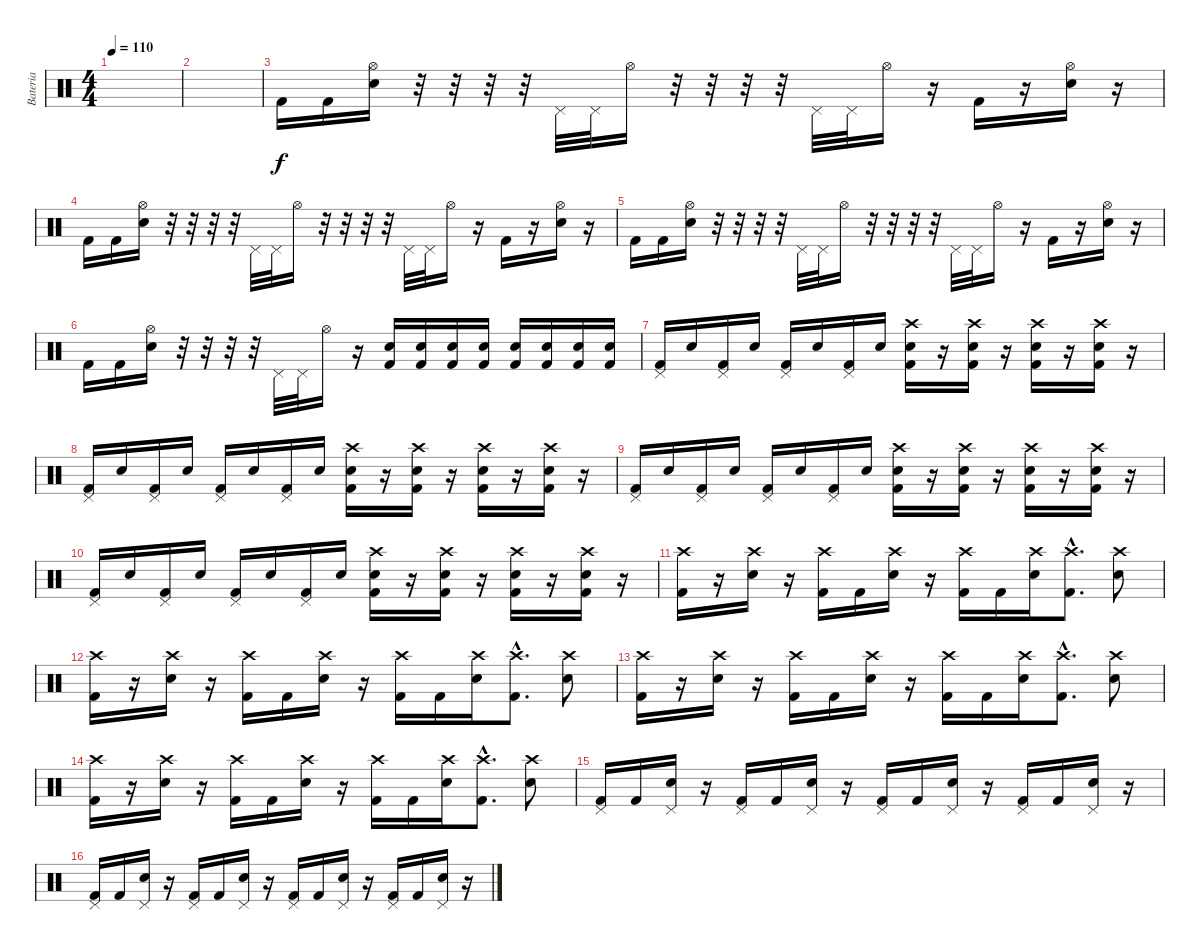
\track ("Bateria" "Bateria") {instrument percussion}
\staff {score}
\articulation defaults
\ts (4 4)
\tempo 110
\clef neutral
\ks c
|
|
"Kick (hit) 2".16 "Kick (hit) 2".16 ("Hi-Hat (open)" "Electric Snare (hit)").16 r.32 r.32 r.32 r.32 "Pedal Hi-Hat (hit)".32 "Pedal Hi-Hat (hit)".32 "Hi-Hat (open)".16 r.32 r.32 r.32 r.32 "Pedal Hi-Hat (hit)".32 "Pedal Hi-Hat (hit)".32 "Hi-Hat (open)".16 r.16 "Kick (hit) 2".16 r.16 ("Hi-Hat (open)" "Electric Snare (hit)").16 r.16 |
"Kick (hit) 2".16 "Kick (hit) 2".16 ("Hi-Hat (open)" "Electric Snare (hit)").16 r.32 r.32 r.32 r.32 "Pedal Hi-Hat (hit)".32 "Pedal Hi-Hat (hit)".32 "Hi-Hat (open)".16 r.32 r.32 r.32 r.32 "Pedal Hi-Hat (hit)".32 "Pedal Hi-Hat (hit)".32 "Hi-Hat (open)".16 r.16 "Kick (hit) 2".16 r.16 ("Hi-Hat (open)" "Electric Snare (hit)").16 r.16 |
"Kick (hit) 2".16 "Kick (hit) 2".16 ("Hi-Hat (open)" "Electric Snare (hit)").16 r.32 r.32 r.32 r.32 "Pedal Hi-Hat (hit)".32 "Pedal Hi-Hat (hit)".32 "Hi-Hat (open)".16 r.32 r.32 r.32 r.32 "Pedal Hi-Hat (hit)".32 "Pedal Hi-Hat (hit)".32 "Hi-Hat (open)".16 r.16 "Kick (hit) 2".16 r.16 ("Hi-Hat (open)" "Electric Snare (hit)").16 r.16 |
"Kick (hit) 2".16 "Kick (hit) 2".16 ("Hi-Hat (open)" "Electric Snare (hit)").16 r.32 r.32 r.32 r.32 "Pedal Hi-Hat (hit)".32 "Pedal Hi-Hat (hit)".32 "Hi-Hat (open)".16 r.16 ("Electric Snare (hit)" "Kick (hit) 2").16 ("Electric Snare (hit)" "Kick (hit) 2").16 ("Electric Snare (hit)" "Kick (hit) 2").16 ("Electric Snare (hit)" "Kick (hit) 2").16 ("Electric Snare (hit)" "Kick (hit) 2").16 ("Electric Snare (hit)" "Kick (hit) 2").16 ("Electric Snare (hit)" "Kick (hit) 2").16 ("Electric Snare (hit)" "Kick (hit) 2").16 |
("Pedal Hi-Hat (hit)" "Kick (hit) 2").16 "Electric Snare (hit)".16 ("Pedal Hi-Hat (hit)" "Kick (hit) 2").16 "Electric Snare (hit)".16 ("Pedal Hi-Hat (hit)" "Kick (hit) 2").16 "Electric Snare (hit)".16 ("Pedal Hi-Hat (hit)" "Kick (hit) 2").16 "Electric Snare (hit)".16 ("Crash high (hit)" "Electric Snare (hit)" "Kick (hit) 2").16 r.16 ("Crash high (hit)" "Electric Snare (hit)" "Kick (hit) 2").16 r.16 ("Crash high (hit)" "Electric Snare (hit)" "Kick (hit) 2").16 r.16 ("Crash high (hit)" "Electric Snare (hit)" "Kick (hit) 2").16 r.16 |
("Pedal Hi-Hat (hit)" "Kick (hit) 2").16 "Electric Snare (hit)".16 ("Pedal Hi-Hat (hit)" "Kick (hit) 2").16 "Electric Snare (hit)".16 ("Pedal Hi-Hat (hit)" "Kick (hit) 2").16 "Electric Snare (hit)".16 ("Pedal Hi-Hat (hit)" "Kick (hit) 2").16 "Electric Snare (hit)".16 ("Crash high (hit)" "Electric Snare (hit)" "Kick (hit) 2").16 r.16 ("Crash high (hit)" "Electric Snare (hit)" "Kick (hit) 2").16 r.16 ("Crash high (hit)" "Electric Snare (hit)" "Kick (hit) 2").16 r.16 ("Crash high (hit)" "Electric Snare (hit)" "Kick (hit) 2").16 r.16 |
("Pedal Hi-Hat (hit)" "Kick (hit) 2").16 "Electric Snare (hit)".16 ("Pedal Hi-Hat (hit)" "Kick (hit) 2").16 "Electric Snare (hit)".16 ("Pedal Hi-Hat (hit)" "Kick (hit) 2").16 "Electric Snare (hit)".16 ("Pedal Hi-Hat (hit)" "Kick (hit) 2").16 "Electric Snare (hit)".16 ("Crash high (hit)" "Electric Snare (hit)" "Kick (hit) 2").16 r.16 ("Crash high (hit)" "Electric Snare (hit)" "Kick (hit) 2").16 r.16 ("Crash high (hit)" "Electric Snare (hit)" "Kick (hit) 2").16 r.16 ("Crash high (hit)" "Electric Snare (hit)" "Kick (hit) 2").16 r.16 |
("Pedal Hi-Hat (hit)" "Kick (hit) 2").16 "Electric Snare (hit)".16 ("Pedal Hi-Hat (hit)" "Kick (hit) 2").16 "Electric Snare (hit)".16 ("Pedal Hi-Hat (hit)" "Kick (hit) 2").16 "Electric Snare (hit)".16 ("Pedal Hi-Hat (hit)" "Kick (hit) 2").16 "Electric Snare (hit)".16 ("Crash high (hit)" "Electric Snare (hit)" "Kick (hit) 2").16 r.16 ("Crash high (hit)" "Electric Snare (hit)" "Kick (hit) 2").16 r.16 ("Crash high (hit)" "Electric Snare (hit)" "Kick (hit) 2").16 r.16 ("Crash high (hit)" "Electric Snare (hit)" "Kick (hit) 2").16 r.16 |
("Crash high (hit)" "Kick (hit) 2").16 r.16 ("Crash high (hit)" "Electric Snare (hit)").16 r.16 ("Crash high (hit)" "Kick (hit) 2").16 "Kick (hit) 2".16 ("Crash high (hit)" "Electric Snare (hit)").16 r.16 ("Crash high (hit)" "Kick (hit) 2").16 "Kick (hit) 2".16 ("Crash high (hit)" "Electric Snare (hit)").16 ("Crash high (hit)"{hac} "Kick (hit) 2"{hac}).8{d} ("Crash high (hit)" "Electric Snare (hit)").8 |
("Crash high (hit)" "Kick (hit) 2").16 r.16 ("Crash high (hit)" "Electric Snare (hit)").16 r.16 ("Crash high (hit)" "Kick (hit) 2").16 "Kick (hit) 2".16 ("Crash high (hit)" "Electric Snare (hit)").16 r.16 ("Crash high (hit)" "Kick (hit) 2").16 "Kick (hit) 2".16 ("Crash high (hit)" "Electric Snare (hit)").16 ("Crash high (hit)"{hac} "Kick (hit) 2"{hac}).8{d} ("Crash high (hit)" "Electric Snare (hit)").8 |
("Crash high (hit)" "Kick (hit) 2").16 r.16 ("Crash high (hit)" "Electric Snare (hit)").16 r.16 ("Crash high (hit)" "Kick (hit) 2").16 "Kick (hit) 2".16 ("Crash high (hit)" "Electric Snare (hit)").16 r.16 ("Crash high (hit)" "Kick (hit) 2").16 "Kick (hit) 2".16 ("Crash high (hit)" "Electric Snare (hit)").16 ("Crash high (hit)"{hac} "Kick (hit) 2"{hac}).8{d} ("Crash high (hit)" "Electric Snare (hit)").8 |
("Crash high (hit)" "Kick (hit) 2").16 r.16 ("Crash high (hit)" "Electric Snare (hit)").16 r.16 ("Crash high (hit)" "Kick (hit) 2").16 "Kick (hit) 2".16 ("Crash high (hit)" "Electric Snare (hit)").16 r.16 ("Crash high (hit)" "Kick (hit) 2").16 "Kick (hit) 2".16 ("Crash high (hit)" "Electric Snare (hit)").16 ("Crash high (hit)"{hac} "Kick (hit) 2"{hac}).8{d} ("Crash high (hit)" "Electric Snare (hit)").8 |
("Pedal Hi-Hat (hit)" "Kick (hit) 2").16 "Kick (hit) 2".16 ("Pedal Hi-Hat (hit)" "Electric Snare (hit)").16 r.16 ("Pedal Hi-Hat (hit)" "Kick (hit) 2").16 "Kick (hit) 2".16 ("Pedal Hi-Hat (hit)" "Electric Snare (hit)").16 r.16 ("Pedal Hi-Hat (hit)" "Kick (hit) 2").16 "Kick (hit) 2".16 ("Pedal Hi-Hat (hit)" "Electric Snare (hit)").16 r.16 ("Pedal Hi-Hat (hit)" "Kick (hit) 2").16 "Kick (hit) 2".16 ("Pedal Hi-Hat (hit)" "Electric Snare (hit)").16 r.16 |
("Pedal Hi-Hat (hit)" "Kick (hit) 2").16 "Kick (hit) 2".16 ("Pedal Hi-Hat (hit)" "Electric Snare (hit)").16 r.16 ("Pedal Hi-Hat (hit)" "Kick (hit) 2").16 "Kick (hit) 2".16 ("Pedal Hi-Hat (hit)" "Electric Snare (hit)").16 r.16 ("Pedal Hi-Hat (hit)" "Kick (hit) 2").16 "Kick (hit) 2".16 ("Pedal Hi-Hat (hit)" "Electric Snare (hit)").16 r.16 ("Pedal Hi-Hat (hit)" "Kick (hit) 2").16 "Kick (hit) 2".16 ("Pedal Hi-Hat (hit)" "Electric Snare (hit)").16 r.16
